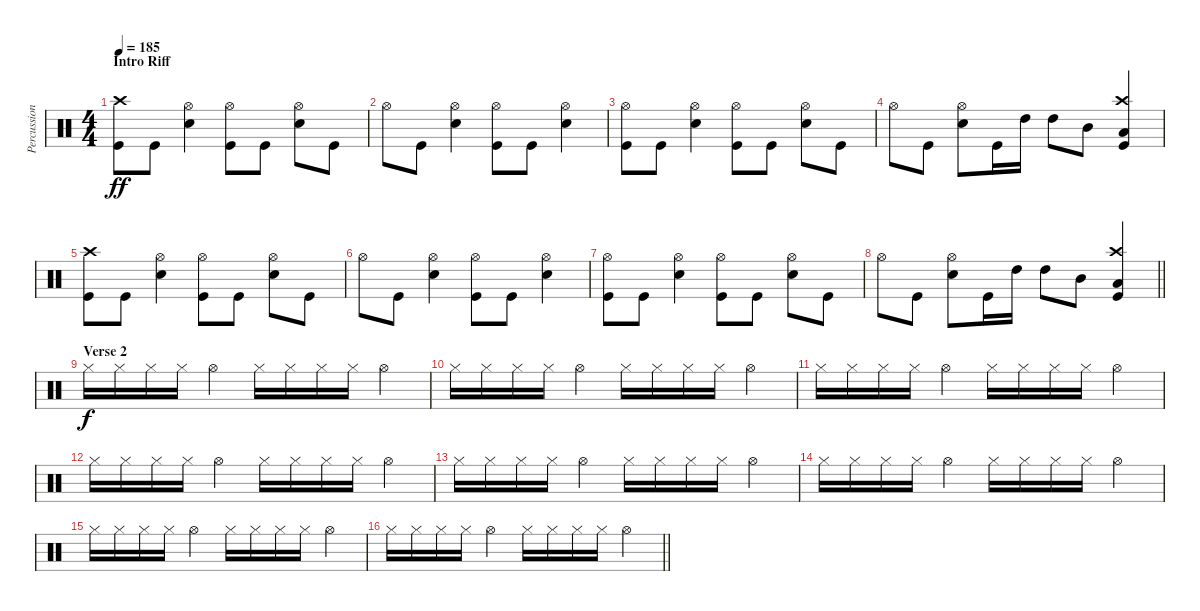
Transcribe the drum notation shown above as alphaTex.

\track ("Percussion" "Percussion") {instrument percussion}
\staff {score}
\articulation defaults
\ts (4 4)
\section ("" "Intro Riff")
\tempo 185
\clef neutral
\ks c
("Kick (hit)" "Crash high (hit)").8{dy ff} "Kick (hit)".8 ("Snare (hit) 2" "Hi-Hat (open)").4 ("Hi-Hat (open)" "Kick (hit)").8 "Kick (hit)".8 ("Snare (hit) 2" "Hi-Hat (open)").8 "Kick (hit)".8 |
"Hi-Hat (open)".8 "Kick (hit)".8 ("Snare (hit) 2" "Hi-Hat (open)").4 ("Hi-Hat (open)" "Kick (hit)").8 "Kick (hit)".8 ("Snare (hit) 2" "Hi-Hat (open)").4 |
("Kick (hit)" "Hi-Hat (open)").8 "Kick (hit)".8 ("Snare (hit) 2" "Hi-Hat (open)").4 ("Hi-Hat (open)" "Kick (hit)").8 "Kick (hit)".8 ("Snare (hit) 2" "Hi-Hat (open)").8 "Kick (hit)".8 |
"Hi-Hat (open)".8 "Kick (hit)".8 ("Snare (hit) 2" "Hi-Hat (open)").8 "Kick (hit)".16 "High Tom (hit)".16 "High Tom (hit)".8 "Mid Tom (hit)".8 ("Crash high (hit)" "Low Tom (hit)" "Kick (hit)").4 |
("Kick (hit)" "Crash high (hit)").8 "Kick (hit)".8 ("Snare (hit) 2" "Hi-Hat (open)").4 ("Hi-Hat (open)" "Kick (hit)").8 "Kick (hit)".8 ("Snare (hit) 2" "Hi-Hat (open)").8 "Kick (hit)".8 |
"Hi-Hat (open)".8 "Kick (hit)".8 ("Snare (hit) 2" "Hi-Hat (open)").4 ("Hi-Hat (open)" "Kick (hit)").8 "Kick (hit)".8 ("Snare (hit) 2" "Hi-Hat (open)").4 |
("Kick (hit)" "Hi-Hat (open)").8 "Kick (hit)".8 ("Snare (hit) 2" "Hi-Hat (open)").4 ("Hi-Hat (open)" "Kick (hit)").8 "Kick (hit)".8 ("Snare (hit) 2" "Hi-Hat (open)").8 "Kick (hit)".8 |
\barLineRight lightlight "Hi-Hat (open)".8 "Kick (hit)".8
("Snare (hit) 2" "Hi-Hat (open)").8 "Kick (hit)".16 "High Tom (hit)".16 "High Tom (hit)".8 "Mid Tom (hit)".8 ("Crash high (hit)" "Low Tom (hit)" "Kick (hit)").4 |
\section ("" "Verse 2")
"Hi-Hat (closed)".16{dy f} "Hi-Hat (closed)".16 "Hi-Hat (closed)".16 "Hi-Hat (closed)".16 "Hi-Hat (open)".4 "Hi-Hat (closed)".16 "Hi-Hat (closed)".16 "Hi-Hat (closed)".16 "Hi-Hat (closed)".16 "Hi-Hat (open)".4 |
"Hi-Hat (closed)".16 "Hi-Hat (closed)".16 "Hi-Hat (closed)".16 "Hi-Hat (closed)".16 "Hi-Hat (open)".4 "Hi-Hat (closed)".16 "Hi-Hat (closed)".16 "Hi-Hat (closed)".16 "Hi-Hat (closed)".16 "Hi-Hat (open)".4 |
"Hi-Hat (closed)".16 "Hi-Hat (closed)".16 "Hi-Hat (closed)".16 "Hi-Hat (closed)".16 "Hi-Hat (open)".4 "Hi-Hat (closed)".16 "Hi-Hat (closed)".16 "Hi-Hat (closed)".16 "Hi-Hat (closed)".16 "Hi-Hat (open)".4 |
"Hi-Hat (closed)".16 "Hi-Hat (closed)".16 "Hi-Hat (closed)".16 "Hi-Hat (closed)".16 "Hi-Hat (open)".4 "Hi-Hat (closed)".16 "Hi-Hat (closed)".16 "Hi-Hat (closed)".16 "Hi-Hat (closed)".16 "Hi-Hat (open)".4 |
"Hi-Hat (closed)".16 "Hi-Hat (closed)".16 "Hi-Hat (closed)".16 "Hi-Hat (closed)".16 "Hi-Hat (open)".4 "Hi-Hat (closed)".16 "Hi-Hat (closed)".16 "Hi-Hat (closed)".16 "Hi-Hat (closed)".16 "Hi-Hat (open)".4 |
"Hi-Hat (closed)".16 "Hi-Hat (closed)".16 "Hi-Hat (closed)".16 "Hi-Hat (closed)".16 "Hi-Hat (open)".4 "Hi-Hat (closed)".16 "Hi-Hat (closed)".16 "Hi-Hat (closed)".16 "Hi-Hat (closed)".16 "Hi-Hat (open)".4 |
"Hi-Hat (closed)".16 "Hi-Hat (closed)".16 "Hi-Hat (closed)".16 "Hi-Hat (closed)".16 "Hi-Hat (open)".4 "Hi-Hat (closed)".16 "Hi-Hat (closed)".16 "Hi-Hat (closed)".16 "Hi-Hat (closed)".16 "Hi-Hat (open)".4 |
\barLineRight lightlight "Hi-Hat (closed)".16 "Hi-Hat (closed)".16 "Hi-Hat (closed)".16 "Hi-Hat (closed)".16 "Hi-Hat (open)".4 "Hi-Hat (closed)".16 "Hi-Hat (closed)".16 "Hi-Hat (closed)".16 "Hi-Hat (closed)".16 "Hi-Hat (open)".4
